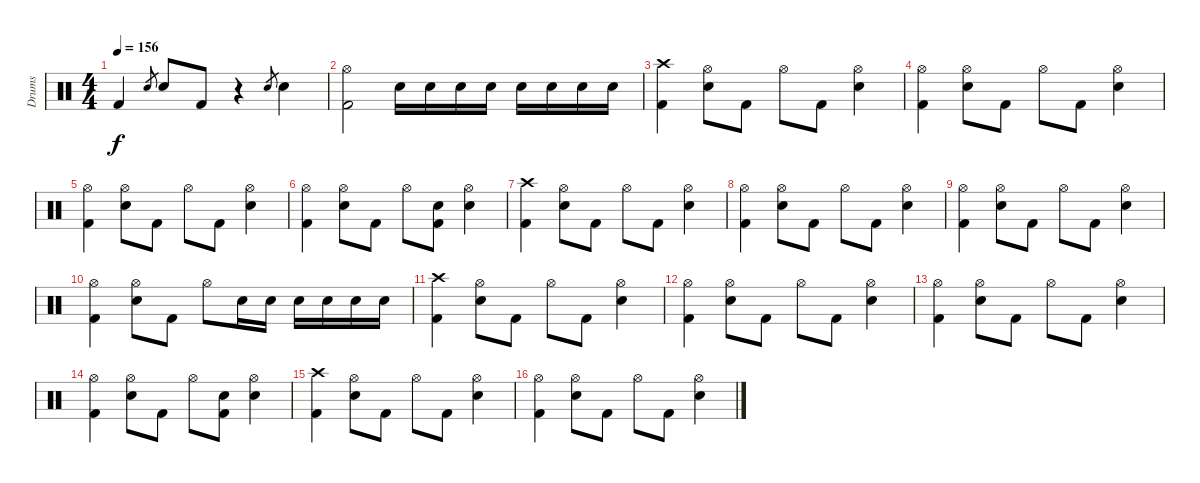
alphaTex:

\track ("Drums" "Drums") {instrument percussion}
\staff {score}
\articulation defaults
\ts (4 4)
\tempo 156
\clef neutral
\ks c "Kick (hit) 2".4{dy f} "Electric Snare (hit)".8{gr} "Electric Snare (hit)".8 "Kick (hit) 2".8
r.4 "Electric Snare (hit)".8{gr} "Electric Snare (hit)".4 |
("Hi-Hat (open)" "Kick (hit) 2").2 "Electric Snare (hit)".16 "Electric Snare (hit)".16 "Electric Snare (hit)".16 "Electric Snare (hit)".16 "Electric Snare (hit)".16 "Electric Snare (hit)".16 "Electric Snare (hit)".16 "Electric Snare (hit)".16 |
("Crash high (hit)" "Kick (hit) 2").4 ("Hi-Hat (open)" "Electric Snare (hit)").8 "Kick (hit) 2".8 "Hi-Hat (open)".8 "Kick (hit) 2".8 ("Hi-Hat (open)" "Electric Snare (hit)").4 |
("Hi-Hat (open)" "Kick (hit) 2").4 ("Hi-Hat (open)" "Electric Snare (hit)").8 "Kick (hit) 2".8 "Hi-Hat (open)".8 "Kick (hit) 2".8 ("Hi-Hat (open)" "Electric Snare (hit)").4 |
("Hi-Hat (open)" "Kick (hit) 2").4 ("Hi-Hat (open)" "Electric Snare (hit)").8 "Kick (hit) 2".8 "Hi-Hat (open)".8 "Kick (hit) 2".8 ("Hi-Hat (open)" "Electric Snare (hit)").4 |
("Hi-Hat (open)" "Kick (hit) 2").4 ("Hi-Hat (open)" "Electric Snare (hit)").8 "Kick (hit) 2".8 "Hi-Hat (open)".8 ("Electric Snare (hit)" "Kick (hit) 2").8 ("Hi-Hat (open)" "Electric Snare (hit)").4 |
("Crash high (hit)" "Kick (hit) 2").4 ("Hi-Hat (open)" "Electric Snare (hit)").8 "Kick (hit) 2".8 "Hi-Hat (open)".8 "Kick (hit) 2".8 ("Hi-Hat (open)" "Electric Snare (hit)").4 |
("Hi-Hat (open)" "Kick (hit) 2").4 ("Hi-Hat (open)" "Electric Snare (hit)").8 "Kick (hit) 2".8 "Hi-Hat (open)".8 "Kick (hit) 2".8 ("Hi-Hat (open)" "Electric Snare (hit)").4 |
("Hi-Hat (open)" "Kick (hit) 2").4 ("Hi-Hat (open)" "Electric Snare (hit)").8 "Kick (hit) 2".8 "Hi-Hat (open)".8 "Kick (hit) 2".8 ("Hi-Hat (open)" "Electric Snare (hit)").4 |
("Hi-Hat (open)" "Kick (hit) 2").4 ("Hi-Hat (open)" "Electric Snare (hit)").8 "Kick (hit) 2".8 "Hi-Hat (open)".8 "Electric Snare (hit)".16 "Electric Snare (hit)".16 "Electric Snare (hit)".16 "Electric Snare (hit)".16 "Electric Snare (hit)".16 "Electric Snare (hit)".16 |
("Crash high (hit)" "Kick (hit) 2").4 ("Hi-Hat (open)" "Electric Snare (hit)").8 "Kick (hit) 2".8 "Hi-Hat (open)".8 "Kick (hit) 2".8 ("Hi-Hat (open)" "Electric Snare (hit)").4 |
("Hi-Hat (open)" "Kick (hit) 2").4 ("Hi-Hat (open)" "Electric Snare (hit)").8 "Kick (hit) 2".8 "Hi-Hat (open)".8 "Kick (hit) 2".8 ("Hi-Hat (open)" "Electric Snare (hit)").4 |
("Hi-Hat (open)" "Kick (hit) 2").4 ("Hi-Hat (open)" "Electric Snare (hit)").8 "Kick (hit) 2".8 "Hi-Hat (open)".8 "Kick (hit) 2".8 ("Hi-Hat (open)" "Electric Snare (hit)").4 |
("Hi-Hat (open)" "Kick (hit) 2").4 ("Hi-Hat (open)" "Electric Snare (hit)").8 "Kick (hit) 2".8 "Hi-Hat (open)".8 ("Electric Snare (hit)" "Kick (hit) 2").8 ("Hi-Hat (open)" "Electric Snare (hit)").4 |
("Crash high (hit)" "Kick (hit) 2").4 ("Hi-Hat (open)" "Electric Snare (hit)").8 "Kick (hit) 2".8 "Hi-Hat (open)".8 "Kick (hit) 2".8 ("Hi-Hat (open)" "Electric Snare (hit)").4 |
("Hi-Hat (open)" "Kick (hit) 2").4 ("Hi-Hat (open)" "Electric Snare (hit)").8 "Kick (hit) 2".8 "Hi-Hat (open)".8 "Kick (hit) 2".8 ("Hi-Hat (open)" "Electric Snare (hit)").4
